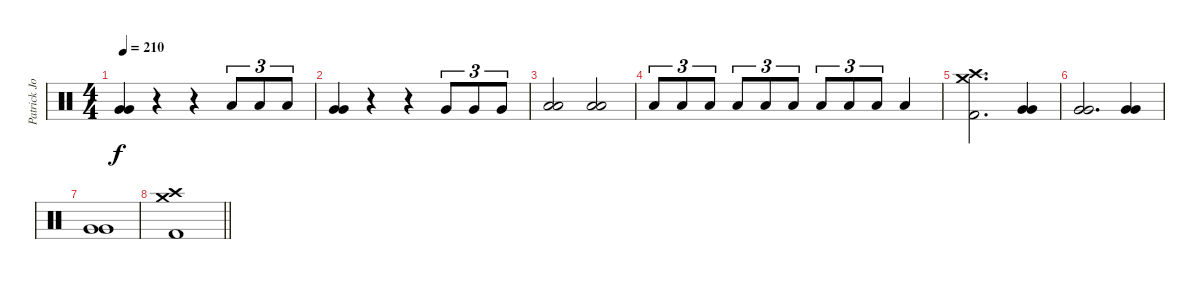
\track ("Patrick Johansson" "Patrick Jo") {instrument percussion}
\staff {score}
\articulation defaults
\ts (4 4)
\tempo 210
\clef neutral
\ks c
("Very Low Tom (hit)" "Very Low Tom (hit)").4{dy f} r.4 r.4 "Low Tom (hit)".8{tu (3 2)} "Low Tom (hit)".8{tu (3 2)} "Low Tom (hit)".8{tu (3 2)} |
("Very Low Tom (hit)" "Very Low Tom (hit)").4 r.4 r.4 "Very Low Tom (hit)".8{tu (3 2)} "Very Low Tom (hit)".8{tu (3 2)} "Very Low Tom (hit)".8{tu (3 2)} |
("Low Floor Tom (hit)" "Low Floor Tom (hit)").2 ("Low Floor Tom (hit)" "Low Floor Tom (hit)").2 |
"Low Floor Tom (hit)".8{tu (3 2)} "Low Floor Tom (hit)".8{tu (3 2)} "Low Floor Tom (hit)".8{tu (3 2)} "Low Floor Tom (hit)".8{tu (3 2)} "Low Floor Tom (hit)".8{tu (3 2)} "Low Floor Tom (hit)".8{tu (3 2)} "Low Floor Tom (hit)".8{tu (3 2)} "Low Floor Tom (hit)".8{tu (3 2)} "Low Floor Tom (hit)".8{tu (3 2)} "Low Floor Tom (hit)".4 |
("Crash medium (hit)" "Crash high (hit)" "Kick (hit) 2").2{d} ("Very Low Tom (hit)" "Very Low Tom (hit)").4 |
("Very Low Tom (hit)" "Very Low Tom (hit)").2{d} ("Very Low Tom (hit)" "Very Low Tom (hit)").4 |
("Very Low Tom (hit)" "Very Low Tom (hit)").1 |
\barLineRight lightlight
("Crash medium (hit)" "Crash high (hit)" "Kick (hit) 2").1
